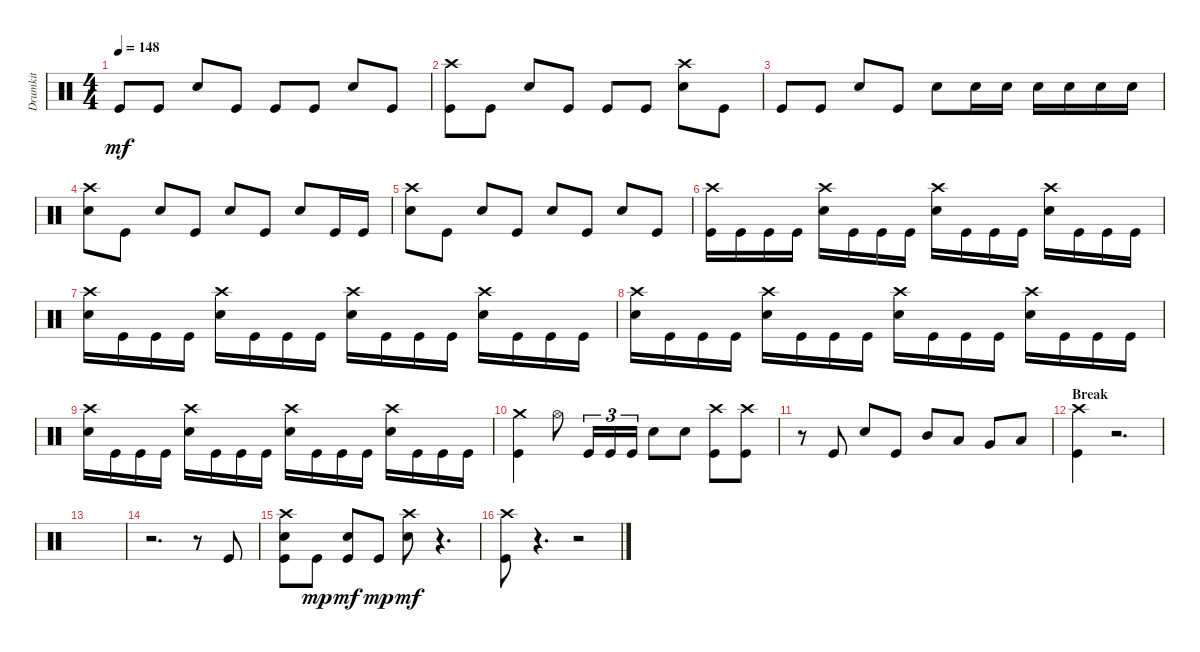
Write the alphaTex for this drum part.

\track ("Drumkit" "Drumkit") {instrument percussion}
\staff {score}
\articulation defaults
\ts (4 4)
\tempo 148
\clef neutral
\ks c "Kick (hit)".8{dy mf} "Kick (hit)".8 "Snare (hit) 2".8 "Kick (hit)".8 "Kick (hit)".8 "Kick (hit)".8 "Snare (hit) 2".8 "Kick (hit)".8
|
("Kick (hit)" "Crash high (hit)").8 "Kick (hit)".8 "Snare (hit) 2".8 "Kick (hit)".8 "Kick (hit)".8 "Kick (hit)".8 ("Snare (hit) 2" "Crash high (hit)").8 "Kick (hit)".8 |
"Kick (hit)".8 "Kick (hit)".8 "Snare (hit) 2".8 "Kick (hit)".8 "Snare (hit) 2".8 "Snare (hit) 2".16 "Snare (hit) 2".16 "Snare (hit) 2".16 "Snare (hit) 2".16 "Snare (hit) 2".16 "Snare (hit) 2".16 |
("Crash high (hit)" "Snare (hit) 2").8 "Kick (hit)".8 "Snare (hit) 2".8 "Kick (hit)".8 "Snare (hit) 2".8 "Kick (hit)".8 "Snare (hit) 2".8 "Kick (hit)".16 "Kick (hit)".16 |
("Crash high (hit)" "Snare (hit) 2").8 "Kick (hit)".8 "Snare (hit) 2".8 "Kick (hit)".8 "Snare (hit) 2".8 "Kick (hit)".8 "Snare (hit) 2".8 "Kick (hit)".8 |
("Kick (hit)" "Crash high (hit)").16 "Kick (hit)".16 "Kick (hit)".16 "Kick (hit)".16 ("Snare (hit) 2" "Crash high (hit)").16 "Kick (hit)".16 "Kick (hit)".16 "Kick (hit)".16 ("Snare (hit) 2" "Crash high (hit)").16 "Kick (hit)".16 "Kick (hit)".16 "Kick (hit)".16 ("Snare (hit) 2" "Crash high (hit)").16 "Kick (hit)".16 "Kick (hit)".16 "Kick (hit)".16 |
("Snare (hit) 2" "Crash high (hit)").16 "Kick (hit)".16 "Kick (hit)".16 "Kick (hit)".16 ("Snare (hit) 2" "Crash high (hit)").16 "Kick (hit)".16 "Kick (hit)".16 "Kick (hit)".16 ("Snare (hit) 2" "Crash high (hit)").16 "Kick (hit)".16 "Kick (hit)".16 "Kick (hit)".16 ("Snare (hit) 2" "Crash high (hit)").16 "Kick (hit)".16 "Kick (hit)".16 "Kick (hit)".16 |
("Snare (hit) 2" "Crash high (hit)").16 "Kick (hit)".16 "Kick (hit)".16 "Kick (hit)".16 ("Snare (hit) 2" "Crash high (hit)").16 "Kick (hit)".16 "Kick (hit)".16 "Kick (hit)".16 ("Snare (hit) 2" "Crash high (hit)").16 "Kick (hit)".16 "Kick (hit)".16 "Kick (hit)".16 ("Snare (hit) 2" "Crash high (hit)").16 "Kick (hit)".16 "Kick (hit)".16 "Kick (hit)".16 |
("Snare (hit) 2" "Crash high (hit)").16 "Kick (hit)".16 "Kick (hit)".16 "Kick (hit)".16 ("Snare (hit) 2" "Crash high (hit)").16 "Kick (hit)".16 "Kick (hit)".16 "Kick (hit)".16 ("Snare (hit) 2" "Crash high (hit)").16 "Kick (hit)".16 "Kick (hit)".16 "Kick (hit)".16 ("Snare (hit) 2" "Crash high (hit)").16 "Kick (hit)".16 "Kick (hit)".16 "Kick (hit)".16 |
("Kick (hit)" "Crash medium (hit)").4 "Hi-Hat (open)".8 "Kick (hit)".16{tu (3 2)} "Kick (hit)".16{tu (3 2)} "Kick (hit)".16{tu (3 2)} "Snare (hit) 2".8 "Snare (hit) 2".8 ("Kick (hit)" "Crash high (hit)").8 ("Kick (hit)" "Crash high (hit)").8 |
r.8 "Kick (hit)".8 "Snare (hit) 2".8 "Kick (hit)".8 "Mid Tom (hit)".8 "Low Tom (hit)".8 "Very Low Tom (hit)".8 "Low Floor Tom (hit)".8 |
\section ("" "Break")
("Kick (hit)" "Crash high (hit)").4 r.2{d} |
|
r.2{d} r.8 "Kick (hit)".8 |
("Snare (hit) 2" "Kick (hit)" "Crash high (hit)").8 "Kick (hit)".8{dy mp} ("Snare (hit) 2" "Kick (hit)").8{dy mf} "Kick (hit)".8{dy mp} ("Snare (hit) 2" "Crash high (hit)").8{dy mf} r.4{d} |
("Crash high (hit)" "Kick (hit)").8 r.4{d} r.2
